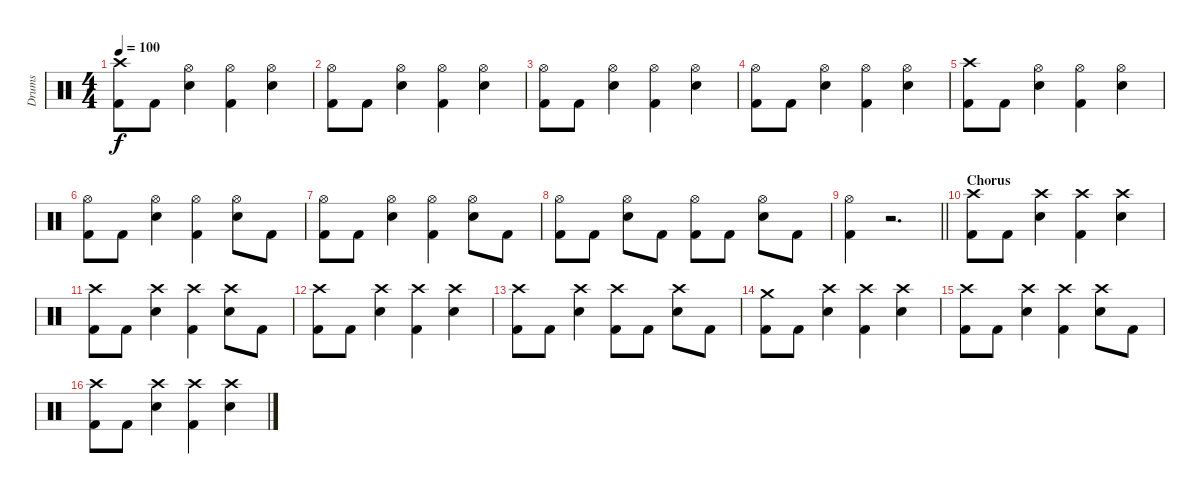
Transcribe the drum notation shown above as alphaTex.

\track ("Drums" "Drums") {instrument percussion}
\staff {score}
\articulation defaults
\ts (4 4)
\tempo 100
\clef neutral
\ks c
("Kick (hit) 2" "Crash high (hit)").8{dy f} "Kick (hit) 2".8 ("Snare (hit) 2" "Hi-Hat (open)").4 ("Kick (hit) 2" "Hi-Hat (open)").4 ("Snare (hit) 2" "Hi-Hat (open)").4 |
("Kick (hit) 2" "Hi-Hat (open)").8 "Kick (hit) 2".8 ("Snare (hit) 2" "Hi-Hat (open)").4 ("Kick (hit) 2" "Hi-Hat (open)").4 ("Snare (hit) 2" "Hi-Hat (open)").4 |
("Kick (hit) 2" "Hi-Hat (open)").8 "Kick (hit) 2".8 ("Snare (hit) 2" "Hi-Hat (open)").4 ("Kick (hit) 2" "Hi-Hat (open)").4 ("Snare (hit) 2" "Hi-Hat (open)").4 |
("Kick (hit) 2" "Hi-Hat (open)").8 "Kick (hit) 2".8 ("Snare (hit) 2" "Hi-Hat (open)").4 ("Kick (hit) 2" "Hi-Hat (open)").4 ("Snare (hit) 2" "Hi-Hat (open)").4 |
("Kick (hit) 2" "Crash high (hit)").8 "Kick (hit) 2".8 ("Snare (hit) 2" "Hi-Hat (open)").4 ("Kick (hit) 2" "Hi-Hat (open)").4 ("Snare (hit) 2" "Hi-Hat (open)").4 |
("Kick (hit) 2" "Hi-Hat (open)").8 "Kick (hit) 2".8 ("Snare (hit) 2" "Hi-Hat (open)").4 ("Kick (hit) 2" "Hi-Hat (open)").4 ("Snare (hit) 2" "Hi-Hat (open)").8 "Kick (hit) 2".8 |
("Kick (hit) 2" "Hi-Hat (open)").8 "Kick (hit) 2".8 ("Snare (hit) 2" "Hi-Hat (open)").4 ("Kick (hit) 2" "Hi-Hat (open)").4 ("Snare (hit) 2" "Hi-Hat (open)").8 "Kick (hit) 2".8 |
("Kick (hit) 2" "Hi-Hat (open)").8 "Kick (hit) 2".8 ("Snare (hit) 2" "Hi-Hat (open)").8 "Kick (hit) 2".8 ("Kick (hit) 2" "Hi-Hat (open)").8 "Kick (hit) 2".8 ("Snare (hit) 2" "Hi-Hat (open)").8 "Kick (hit) 2".8 |
\barLineRight lightlight
("Hi-Hat (open)" "Kick (hit) 2").4 r.2{d} |
\section ("" "Chorus")
("Crash high (hit)" "Kick (hit) 2").8 "Kick (hit) 2".8 ("Snare (hit) 2" "Crash high (hit)").4 ("Kick (hit) 2" "Crash high (hit)").4 ("Snare (hit) 2" "Crash high (hit)").4 |
("Crash high (hit)" "Kick (hit) 2").8 "Kick (hit) 2".8 ("Snare (hit) 2" "Crash high (hit)").4 ("Kick (hit) 2" "Crash high (hit)").4 ("Snare (hit) 2" "Crash high (hit)").8 "Kick (hit) 2".8 |
("Crash high (hit)" "Kick (hit) 2").8 "Kick (hit) 2".8 ("Snare (hit) 2" "Crash high (hit)").4 ("Kick (hit) 2" "Crash high (hit)").4 ("Snare (hit) 2" "Crash high (hit)").4 |
("Crash high (hit)" "Kick (hit) 2").8 "Kick (hit) 2".8 ("Snare (hit) 2" "Crash high (hit)").4 ("Kick (hit) 2" "Crash high (hit)").8 "Kick (hit) 2".8 ("Snare (hit) 2" "Crash high (hit)").8 "Kick (hit) 2".8 |
("Crash medium (hit)" "Kick (hit) 2").8 "Kick (hit) 2".8 ("Snare (hit) 2" "Crash high (hit)").4 ("Kick (hit) 2" "Crash high (hit)").4 ("Snare (hit) 2" "Crash high (hit)").4 |
("Crash high (hit)" "Kick (hit) 2").8 "Kick (hit) 2".8 ("Snare (hit) 2" "Crash high (hit)").4 ("Kick (hit) 2" "Crash high (hit)").4 ("Snare (hit) 2" "Crash high (hit)").8 "Kick (hit) 2".8 |
("Crash high (hit)" "Kick (hit) 2").8 "Kick (hit) 2".8 ("Snare (hit) 2" "Crash high (hit)").4 ("Kick (hit) 2" "Crash high (hit)").4 ("Snare (hit) 2" "Crash high (hit)").4
